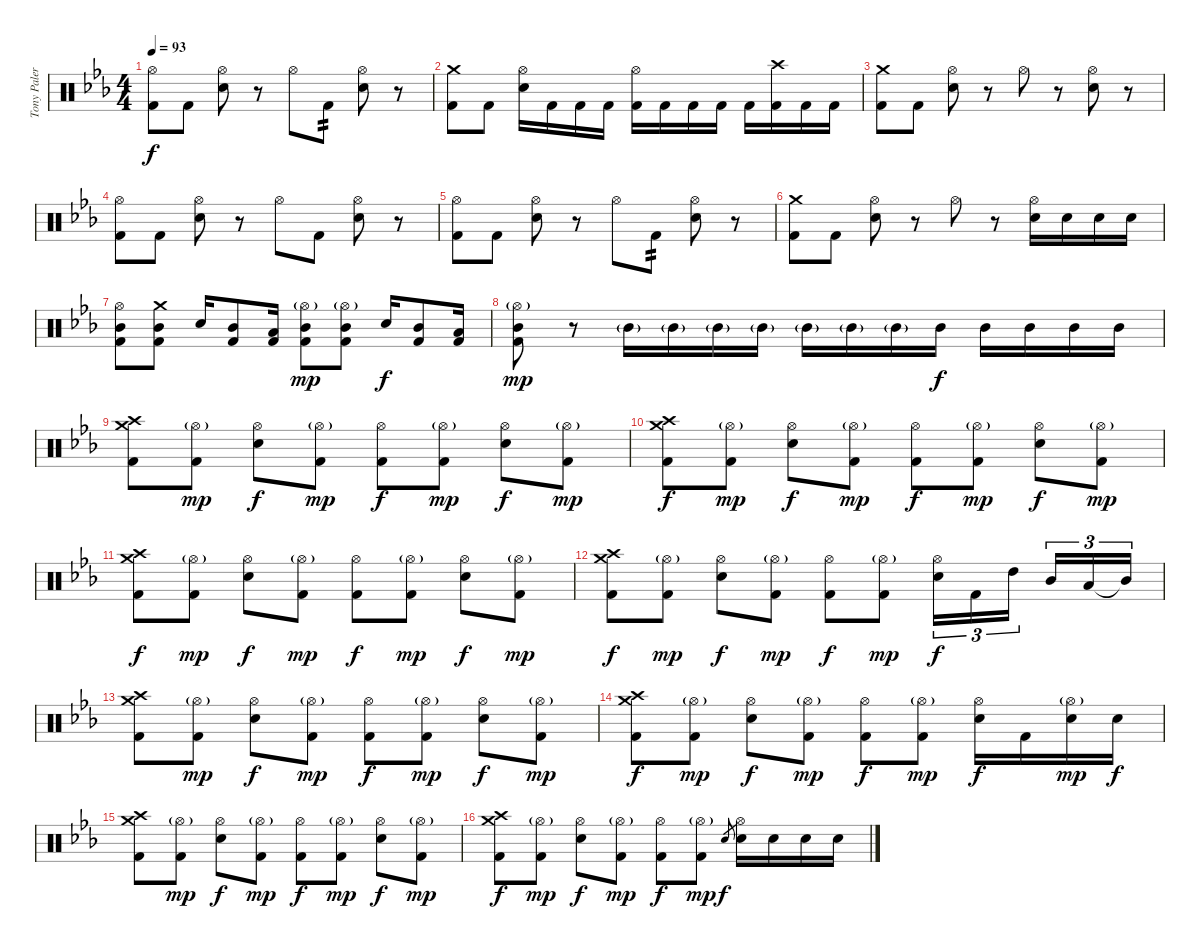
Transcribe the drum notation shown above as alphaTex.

\track ("Tony Palermo" "Tony Paler") {instrument percussion}
\staff {score}
\articulation defaults
\ts (4 4)
\tempo 93
\clef neutral
\ks cminor
("Hi-Hat (open)" "Kick (hit) 2").8{dy f} "Kick (hit) 2".8 ("Hi-Hat (open)" "Electric Snare (hit)").8 r.8 "Hi-Hat (open)".8 "Kick (hit) 2".8{tp 2} ("Hi-Hat (open)" "Electric Snare (hit)").8 r.8 |
("Crash medium (hit)" "Kick (hit) 2").8 "Kick (hit) 2".8 ("Hi-Hat (open)" "Electric Snare (hit)").16 "Kick (hit) 2".16 "Kick (hit) 2".16 "Kick (hit) 2".16 ("Hi-Hat (open)" "Kick (hit) 2").16 "Kick (hit) 2".16 "Kick (hit) 2".16 "Kick (hit) 2".16 "Kick (hit) 2".16 ("Crash high (hit)" "Kick (hit) 2").16 "Kick (hit) 2".16 "Kick (hit) 2".16 |
("Crash medium (hit)" "Kick (hit) 2").8 "Kick (hit) 2".8 ("Hi-Hat (open)" "Electric Snare (hit)").8 r.8 "Hi-Hat (open)".8 r.8 ("Hi-Hat (open)" "Electric Snare (hit)").8 r.8 |
("Hi-Hat (open)" "Kick (hit) 2").8 "Kick (hit) 2".8 ("Hi-Hat (open)" "Electric Snare (hit)").8 r.8 "Hi-Hat (open)".8 "Kick (hit) 2".8 ("Hi-Hat (open)" "Electric Snare (hit)").8 r.8 |
("Hi-Hat (open)" "Kick (hit) 2").8 "Kick (hit) 2".8 ("Hi-Hat (open)" "Electric Snare (hit)").8 r.8 "Hi-Hat (open)".8 "Kick (hit) 2".8{tp 2} ("Hi-Hat (open)" "Electric Snare (hit)").8 r.8 |
("Crash medium (hit)" "Kick (hit) 2").8 "Kick (hit) 2".8 ("Hi-Hat (open)" "Electric Snare (hit)").8 r.8 "Hi-Hat (open)".8 r.8 ("Hi-Hat (open)" "Electric Snare (hit)").16 "Electric Snare (hit)".16 "Electric Snare (hit)".16 "Electric Snare (hit)".16 |
("Hi-Hat (open)" "Mid Tom (hit)" "Kick (hit) 2").8 ("Crash medium (hit)" "Mid Tom (hit)" "Kick (hit) 2").8 "Electric Snare (hit)".16 ("Mid Tom (hit)" "Kick (hit) 2").8 ("Low Tom (hit)" "Kick (hit) 2").16 ("Hi-Hat (open)"{g} "Mid Tom (hit)" "Kick (hit) 2").8{dy mp} ("Hi-Hat (open)"{g} "Mid Tom (hit)" "Kick (hit) 2").8 "Electric Snare (hit)".16{dy f} ("Mid Tom (hit)" "Kick (hit) 2").8 ("Low Tom (hit)" "Kick (hit) 2").16 |
("Hi-Hat (open)"{g} "Mid Tom (hit)" "Kick (hit) 2").8{dy mp} r.8 "Mid Tom (hit)"{g}.16 "Mid Tom (hit)"{g}.16 "Mid Tom (hit)"{g}.16 "Mid Tom (hit)"{g}.16 "Mid Tom (hit)"{g}.16 "Mid Tom (hit)"{g}.16 "Mid Tom (hit)"{g}.16 "Mid Tom (hit)".16{dy f} "Mid Tom (hit)".16 "Mid Tom (hit)".16 "Mid Tom (hit)".16 "Mid Tom (hit)".16 |
("Crash high (hit)" "Crash medium (hit)" "Kick (hit) 2").8 ("Hi-Hat (open)"{g} "Kick (hit) 2").8{dy mp} ("Hi-Hat (open)" "Electric Snare (hit)").8{dy f} ("Hi-Hat (open)"{g} "Kick (hit) 2").8{dy mp} ("Hi-Hat (open)" "Kick (hit) 2").8{dy f} ("Hi-Hat (open)"{g} "Kick (hit) 2").8{dy mp} ("Hi-Hat (open)" "Electric Snare (hit)").8{dy f} ("Hi-Hat (open)"{g} "Kick (hit) 2").8{dy mp} |
("Crash high (hit)" "Crash medium (hit)" "Kick (hit) 2").8{dy f} ("Hi-Hat (open)"{g} "Kick (hit) 2").8{dy mp} ("Hi-Hat (open)" "Electric Snare (hit)").8{dy f} ("Hi-Hat (open)"{g} "Kick (hit) 2").8{dy mp} ("Hi-Hat (open)" "Kick (hit) 2").8{dy f} ("Hi-Hat (open)"{g} "Kick (hit) 2").8{dy mp} ("Hi-Hat (open)" "Electric Snare (hit)").8{dy f} ("Hi-Hat (open)"{g} "Kick (hit) 2").8{dy mp} |
("Crash high (hit)" "Crash medium (hit)" "Kick (hit) 2").8{dy f} ("Hi-Hat (open)"{g} "Kick (hit) 2").8{dy mp} ("Hi-Hat (open)" "Electric Snare (hit)").8{dy f} ("Hi-Hat (open)"{g} "Kick (hit) 2").8{dy mp} ("Hi-Hat (open)" "Kick (hit) 2").8{dy f} ("Hi-Hat (open)"{g} "Kick (hit) 2").8{dy mp} ("Hi-Hat (open)" "Electric Snare (hit)").8{dy f} ("Hi-Hat (open)"{g} "Kick (hit) 2").8{dy mp} |
("Crash high (hit)" "Crash medium (hit)" "Kick (hit) 2").8{dy f} ("Hi-Hat (open)"{g} "Kick (hit) 2").8{dy mp} ("Hi-Hat (open)" "Electric Snare (hit)").8{dy f} ("Hi-Hat (open)"{g} "Kick (hit) 2").8{dy mp} ("Hi-Hat (open)" "Kick (hit) 2").8{dy f} ("Hi-Hat (open)"{g} "Kick (hit) 2").8{dy mp} ("Hi-Hat (open)" "Electric Snare (hit)").16{tu (3 2) dy f} "Kick (hit) 2".16{tu (3 2)} "High Tom (hit)".16{tu (3 2) beam splitsecondary} "Mid Tom (hit)".16{tu (3 2)} "Low Tom (hit)".16{tu (3 2)} "Mid Tom (hit)"{t}.16{tu (3 2)} |
("Crash high (hit)" "Crash medium (hit)" "Kick (hit) 2").8 ("Hi-Hat (open)"{g} "Kick (hit) 2").8{dy mp} ("Hi-Hat (open)" "Electric Snare (hit)").8{dy f} ("Hi-Hat (open)"{g} "Kick (hit) 2").8{dy mp} ("Hi-Hat (open)" "Kick (hit) 2").8{dy f} ("Hi-Hat (open)"{g} "Kick (hit) 2").8{dy mp} ("Hi-Hat (open)" "Electric Snare (hit)").8{dy f} ("Hi-Hat (open)"{g} "Kick (hit) 2").8{dy mp} |
("Crash high (hit)" "Crash medium (hit)" "Kick (hit) 2").8{dy f} ("Hi-Hat (open)"{g} "Kick (hit) 2").8{dy mp} ("Hi-Hat (open)" "Electric Snare (hit)").8{dy f} ("Hi-Hat (open)"{g} "Kick (hit) 2").8{dy mp} ("Hi-Hat (open)" "Kick (hit) 2").8{dy f} ("Hi-Hat (open)"{g} "Kick (hit) 2").8{dy mp} ("Hi-Hat (open)" "Electric Snare (hit)").16{dy f} "Kick (hit) 2".16 ("Hi-Hat (open)"{g} "Electric Snare (hit)").16{dy mp} "Electric Snare (hit)".16{dy f} |
("Crash high (hit)" "Crash medium (hit)" "Kick (hit) 2").8 ("Hi-Hat (open)"{g} "Kick (hit) 2").8{dy mp} ("Hi-Hat (open)" "Electric Snare (hit)").8{dy f} ("Hi-Hat (open)"{g} "Kick (hit) 2").8{dy mp} ("Hi-Hat (open)" "Kick (hit) 2").8{dy f} ("Hi-Hat (open)"{g} "Kick (hit) 2").8{dy mp} ("Hi-Hat (open)" "Electric Snare (hit)").8{dy f} ("Hi-Hat (open)"{g} "Kick (hit) 2").8{dy mp} |
("Crash high (hit)" "Crash medium (hit)" "Kick (hit) 2").8{dy f} ("Hi-Hat (open)"{g} "Kick (hit) 2").8{dy mp} ("Hi-Hat (open)" "Electric Snare (hit)").8{dy f} ("Hi-Hat (open)"{g} "Kick (hit) 2").8{dy mp} ("Hi-Hat (open)" "Kick (hit) 2").8{dy f} ("Hi-Hat (open)"{g} "Kick (hit) 2").8{dy mp} "Electric Snare (hit)".8{gr dy f} ("Hi-Hat (open)" "Electric Snare (hit)").16 "Electric Snare (hit)".16 "Electric Snare (hit)".16 "Electric Snare (hit)".16
